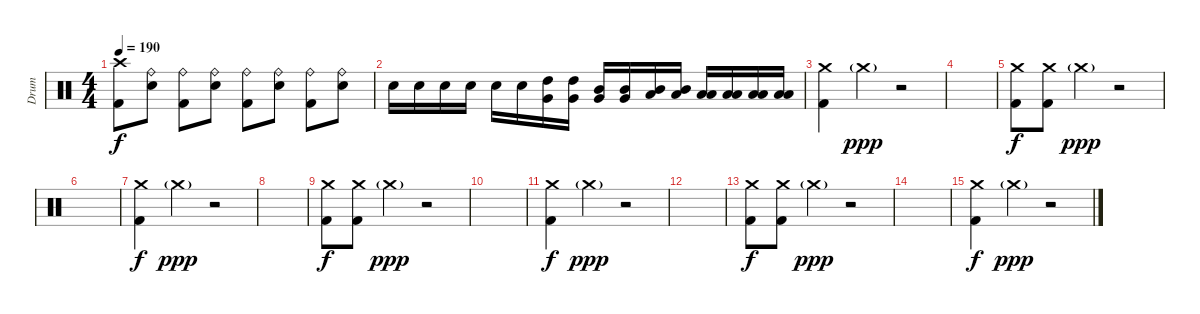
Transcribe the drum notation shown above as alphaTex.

\track ("Drum" "Drum") {instrument percussion}
\staff {score}
\articulation defaults
\ts (4 4)
\tempo 190
\clef neutral
\ks c
("Crash high (hit)" "Kick (hit) 2").8{dy f} ("Ride (bell)" "Snare (hit) 2").8 ("Ride (bell)" "Kick (hit) 2").8 ("Ride (bell)" "Snare (hit) 2").8 ("Ride (bell)" "Kick (hit) 2").8 ("Ride (bell)" "Snare (hit) 2").8 ("Ride (bell)" "Kick (hit) 2").8 ("Ride (bell)" "Snare (hit) 2").8 |
"Snare (hit) 2".16 "Snare (hit) 2".16 "Snare (hit) 2".16 "Snare (hit) 2".16 "Snare (hit) 2".16 "Snare (hit) 2".16 ("High Tom (hit)" "Very Low Tom (hit)").16 ("High Tom (hit)" "Very Low Tom (hit)").16 ("Mid Tom (hit)" "Very Low Tom (hit)").16 ("Mid Tom (hit)" "Very Low Tom (hit)").16 ("Mid Tom (hit)" "Low Floor Tom (hit)").16 ("Mid Tom (hit)" "Low Floor Tom (hit)").16 ("Low Tom (hit)" "Low Floor Tom (hit)").16 ("Low Tom (hit)" "Low Floor Tom (hit)").16 ("Low Tom (hit)" "Low Floor Tom (hit)").16 ("Low Tom (hit)" "Low Floor Tom (hit)").16 |
("Crash medium (hit)" "Kick (hit) 2").4 "Crash medium (hit)"{g}.4{dy ppp} r.2 |
|
("Crash medium (hit)" "Kick (hit) 2").8{dy f} ("Crash medium (hit)" "Kick (hit) 2").8 "Crash medium (hit)"{g}.4{dy ppp} r.2 |
|
("Crash medium (hit)" "Kick (hit) 2").4{dy f} "Crash medium (hit)"{g}.4{dy ppp} r.2 |
|
("Crash medium (hit)" "Kick (hit) 2").8{dy f} ("Crash medium (hit)" "Kick (hit) 2").8 "Crash medium (hit)"{g}.4{dy ppp} r.2 |
|
("Crash medium (hit)" "Kick (hit) 2").4{dy f} "Crash medium (hit)"{g}.4{dy ppp} r.2 |
|
("Crash medium (hit)" "Kick (hit) 2").8{dy f} ("Crash medium (hit)" "Kick (hit) 2").8 "Crash medium (hit)"{g}.4{dy ppp} r.2 |
|
("Crash medium (hit)" "Kick (hit) 2").4{dy f} "Crash medium (hit)"{g}.4{dy ppp} r.2
